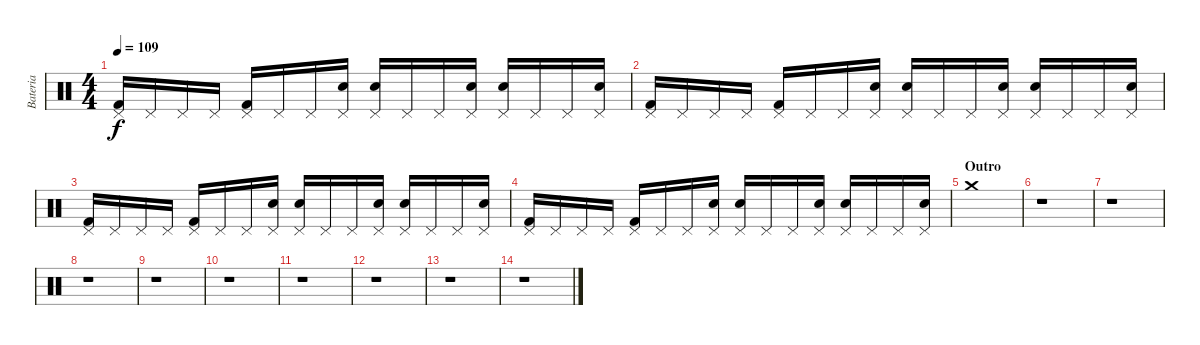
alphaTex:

\track ("Bateria" "Bateria") {instrument percussion}
\staff {score}
\articulation defaults
\ts (4 4)
\tempo 109
\clef neutral
\ks c
("Pedal Hi-Hat (hit)" "Kick (hit) 2").16{dy f} "Pedal Hi-Hat (hit)".16 "Pedal Hi-Hat (hit)".16 "Pedal Hi-Hat (hit)".16 ("Pedal Hi-Hat (hit)" "Kick (hit) 2").16 "Pedal Hi-Hat (hit)".16 "Pedal Hi-Hat (hit)".16 ("Pedal Hi-Hat (hit)" "Electric Snare (hit)").16 ("Pedal Hi-Hat (hit)" "Electric Snare (hit)").16 "Pedal Hi-Hat (hit)".16 "Pedal Hi-Hat (hit)".16 ("Pedal Hi-Hat (hit)" "Electric Snare (hit)").16 ("Pedal Hi-Hat (hit)" "Electric Snare (hit)").16 "Pedal Hi-Hat (hit)".16 "Pedal Hi-Hat (hit)".16 ("Pedal Hi-Hat (hit)" "Electric Snare (hit)").16 |
("Pedal Hi-Hat (hit)" "Kick (hit) 2").16 "Pedal Hi-Hat (hit)".16 "Pedal Hi-Hat (hit)".16 "Pedal Hi-Hat (hit)".16 ("Pedal Hi-Hat (hit)" "Kick (hit) 2").16 "Pedal Hi-Hat (hit)".16 "Pedal Hi-Hat (hit)".16 ("Pedal Hi-Hat (hit)" "Electric Snare (hit)").16 ("Pedal Hi-Hat (hit)" "Electric Snare (hit)").16 "Pedal Hi-Hat (hit)".16 "Pedal Hi-Hat (hit)".16 ("Pedal Hi-Hat (hit)" "Electric Snare (hit)").16 ("Pedal Hi-Hat (hit)" "Electric Snare (hit)").16 "Pedal Hi-Hat (hit)".16 "Pedal Hi-Hat (hit)".16 ("Pedal Hi-Hat (hit)" "Electric Snare (hit)").16 |
("Pedal Hi-Hat (hit)" "Kick (hit) 2").16 "Pedal Hi-Hat (hit)".16 "Pedal Hi-Hat (hit)".16 "Pedal Hi-Hat (hit)".16 ("Pedal Hi-Hat (hit)" "Kick (hit) 2").16 "Pedal Hi-Hat (hit)".16 "Pedal Hi-Hat (hit)".16 ("Pedal Hi-Hat (hit)" "Electric Snare (hit)").16 ("Pedal Hi-Hat (hit)" "Electric Snare (hit)").16 "Pedal Hi-Hat (hit)".16 "Pedal Hi-Hat (hit)".16 ("Pedal Hi-Hat (hit)" "Electric Snare (hit)").16 ("Pedal Hi-Hat (hit)" "Electric Snare (hit)").16 "Pedal Hi-Hat (hit)".16 "Pedal Hi-Hat (hit)".16 ("Pedal Hi-Hat (hit)" "Electric Snare (hit)").16 |
("Pedal Hi-Hat (hit)" "Kick (hit) 2").16 "Pedal Hi-Hat (hit)".16 "Pedal Hi-Hat (hit)".16 "Pedal Hi-Hat (hit)".16 ("Pedal Hi-Hat (hit)" "Kick (hit) 2").16 "Pedal Hi-Hat (hit)".16 "Pedal Hi-Hat (hit)".16 ("Pedal Hi-Hat (hit)" "Electric Snare (hit)").16 ("Pedal Hi-Hat (hit)" "Electric Snare (hit)").16 "Pedal Hi-Hat (hit)".16 "Pedal Hi-Hat (hit)".16 ("Pedal Hi-Hat (hit)" "Electric Snare (hit)").16 ("Pedal Hi-Hat (hit)" "Electric Snare (hit)").16 "Pedal Hi-Hat (hit)".16 "Pedal Hi-Hat (hit)".16 ("Pedal Hi-Hat (hit)" "Electric Snare (hit)").16 |
\section ("" "Outro")
"Crash medium (hit)".1 |
r.1 |
r.1 |
r.1 |
r.1 |
r.1 |
r.1 |
r.1 |
r.1 |
r.1
